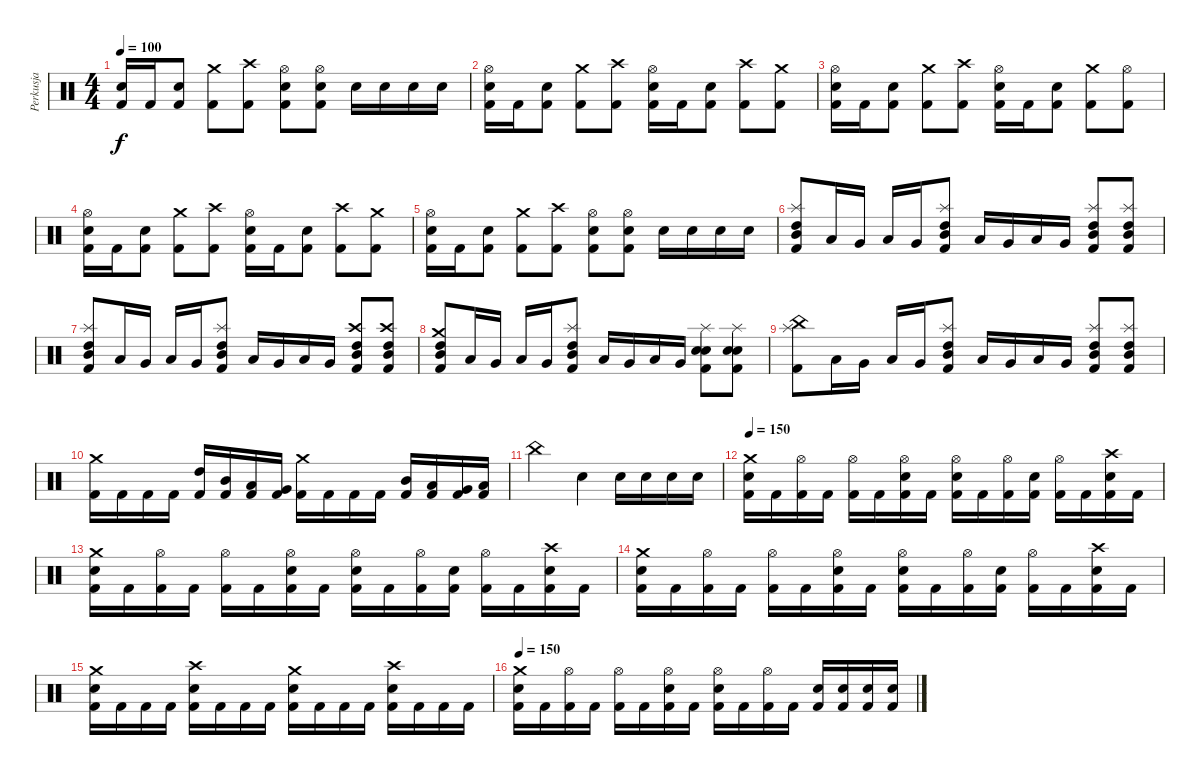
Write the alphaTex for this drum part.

\track ("Perkusja" "Perkusja") {instrument percussion}
\staff {score}
\articulation defaults
\ts (4 4)
\tempo 100
\clef neutral
\ks c
("Electric Snare (hit)" "Kick (hit) 2").16{dy f} "Kick (hit) 2".16 ("Electric Snare (hit)" "Kick (hit) 2").8 ("Crash medium (hit)" "Kick (hit) 2").8 ("Crash high (hit)" "Kick (hit) 2").8 ("Hi-Hat (open)" "Electric Snare (hit)" "Kick (hit) 2").8 ("Hi-Hat (open)" "Electric Snare (hit)" "Kick (hit) 2").8 "Electric Snare (hit)".16 "Electric Snare (hit)".16 "Electric Snare (hit)".16 "Electric Snare (hit)".16 |
("Hi-Hat (open)" "Electric Snare (hit)" "Kick (hit) 2").16 "Kick (hit) 2".16 ("Electric Snare (hit)" "Kick (hit) 2").8 ("Crash medium (hit)" "Kick (hit) 2").8 ("Crash high (hit)" "Kick (hit) 2").8 ("Hi-Hat (open)" "Electric Snare (hit)" "Kick (hit) 2").16 "Kick (hit) 2".16 ("Electric Snare (hit)" "Kick (hit) 2").8 ("Crash high (hit)" "Kick (hit) 2").8 ("Crash medium (hit)" "Kick (hit) 2").8 |
("Hi-Hat (open)" "Electric Snare (hit)" "Kick (hit) 2").16 "Kick (hit) 2".16 ("Electric Snare (hit)" "Kick (hit) 2").8 ("Crash medium (hit)" "Kick (hit) 2").8 ("Crash high (hit)" "Kick (hit) 2").8 ("Hi-Hat (open)" "Electric Snare (hit)" "Kick (hit) 2").16 "Kick (hit) 2".16 ("Electric Snare (hit)" "Kick (hit) 2").8 ("Crash medium (hit)" "Kick (hit) 2").8 ("Hi-Hat (open)" "Kick (hit) 2").8 |
("Hi-Hat (open)" "Electric Snare (hit)" "Kick (hit) 2").16 "Kick (hit) 2".16 ("Electric Snare (hit)" "Kick (hit) 2").8 ("Crash medium (hit)" "Kick (hit) 2").8 ("Crash high (hit)" "Kick (hit) 2").8 ("Hi-Hat (open)" "Electric Snare (hit)" "Kick (hit) 2").16 "Kick (hit) 2".16 ("Electric Snare (hit)" "Kick (hit) 2").8 ("Crash high (hit)" "Kick (hit) 2").8 ("Crash medium (hit)" "Kick (hit) 2").8 |
("Hi-Hat (open)" "Electric Snare (hit)" "Kick (hit) 2").16 "Kick (hit) 2".16 ("Electric Snare (hit)" "Kick (hit) 2").8 ("Crash medium (hit)" "Kick (hit) 2").8 ("Crash high (hit)" "Kick (hit) 2").8 ("Hi-Hat (open)" "Electric Snare (hit)" "Kick (hit) 2").8 ("Hi-Hat (open)" "Electric Snare (hit)" "Kick (hit) 2").8 "Electric Snare (hit)".16 "Electric Snare (hit)".16 "Electric Snare (hit)".16 "Electric Snare (hit)".16 |
("Kick (hit) 2" "Splash (hit)" "High Tom (hit)" "Mid Tom (hit)").8 "Low Tom (hit)".16 "Very Low Tom (hit)".16 "Low Tom (hit)".16 "Very Low Tom (hit)".16 ("Kick (hit) 2" "Splash (hit)" "High Tom (hit)" "Mid Tom (hit)").8 "Low Tom (hit)".16 "Very Low Tom (hit)".16 "Low Tom (hit)".16 "Very Low Tom (hit)".16 ("Kick (hit) 2" "Splash (hit)" "High Tom (hit)" "Mid Tom (hit)").8 ("Kick (hit) 2" "Splash (hit)" "High Tom (hit)" "Mid Tom (hit)").8 |
("Kick (hit) 2" "Splash (hit)" "High Tom (hit)" "Mid Tom (hit)").8 "Low Tom (hit)".16 "Very Low Tom (hit)".16 "Low Tom (hit)".16 "Very Low Tom (hit)".16 ("Kick (hit) 2" "Splash (hit)" "High Tom (hit)" "Mid Tom (hit)").8 "Low Tom (hit)".16 "Very Low Tom (hit)".16 "Low Tom (hit)".16 "Very Low Tom (hit)".16 ("Kick (hit) 2" "Crash high (hit)" "High Tom (hit)" "Mid Tom (hit)").8 ("Kick (hit) 2" "Crash high (hit)" "High Tom (hit)" "Mid Tom (hit)").8 |
("Kick (hit) 2" "Crash medium (hit)" "High Tom (hit)" "Mid Tom (hit)").8 "Low Tom (hit)".16 "Very Low Tom (hit)".16 "Low Tom (hit)".16 "Very Low Tom (hit)".16 ("Kick (hit) 2" "Splash (hit)" "High Tom (hit)" "Mid Tom (hit)").8 "Low Tom (hit)".16 "Very Low Tom (hit)".16 "Low Tom (hit)".16 "Very Low Tom (hit)".16 ("Kick (hit) 2" "Splash (hit)" "Electric Snare (hit)" "Snare (hit) 2").8 ("Kick (hit) 2" "Splash (hit)" "Electric Snare (hit)" "Snare (hit) 2").8 |
("China (hit)" "Splash (hit)" "Kick (hit) 2").8 "Low Tom (hit)".16 "Very Low Tom (hit)".16 "Low Tom (hit)".16 "Very Low Tom (hit)".16 ("Kick (hit) 2" "Splash (hit)" "High Tom (hit)" "Mid Tom (hit)").8 "Low Tom (hit)".16 "Very Low Tom (hit)".16 "Low Tom (hit)".16 "Very Low Tom (hit)".16 ("Kick (hit) 2" "Splash (hit)" "High Tom (hit)" "Mid Tom (hit)").8 ("Kick (hit) 2" "Splash (hit)" "High Tom (hit)" "Mid Tom (hit)").8 |
("Crash medium (hit)" "Kick (hit) 2").16 "Kick (hit) 2".16 "Kick (hit) 2".16 "Kick (hit) 2".16 ("High Tom (hit)" "Kick (hit) 2").16 ("Mid Tom (hit)" "Kick (hit) 2").16 ("Low Tom (hit)" "Kick (hit) 2").16 ("Very Low Tom (hit)" "Kick (hit) 2").16 ("Crash medium (hit)" "Kick (hit) 2").16 "Kick (hit) 2".16 "Kick (hit) 2".16 "Kick (hit) 2".16 ("Mid Tom (hit)" "Kick (hit) 2").16 ("Low Tom (hit)" "Kick (hit) 2").16 ("Very Low Tom (hit)" "Kick (hit) 2").16 ("Low Floor Tom (hit)" "Kick (hit) 2").16 |
"China (hit)".2 "Electric Snare (hit)".4 "Electric Snare (hit)".16 "Electric Snare (hit)".16 "Electric Snare (hit)".16 "Electric Snare (hit)".16 |
\tempo 150
("Crash medium (hit)" "Electric Snare (hit)" "Kick (hit) 2").16 "Kick (hit) 2".16 ("Hi-Hat (open)" "Kick (hit) 2").16 "Kick (hit) 2".16 ("Hi-Hat (open)" "Kick (hit) 2").16 "Kick (hit) 2".16 ("Hi-Hat (open)" "Electric Snare (hit)" "Kick (hit) 2").16 "Kick (hit) 2".16 ("Hi-Hat (open)" "Electric Snare (hit)" "Kick (hit) 2").16 "Kick (hit) 2".16 ("Hi-Hat (open)" "Kick (hit) 2").16 ("Electric Snare (hit)" "Kick (hit) 2").16 ("Hi-Hat (open)" "Kick (hit) 2").16 "Kick (hit) 2".16 ("Crash high (hit)" "Electric Snare (hit)" "Kick (hit) 2").16 "Kick (hit) 2".16 |
("Crash medium (hit)" "Electric Snare (hit)" "Kick (hit) 2").16 "Kick (hit) 2".16 ("Hi-Hat (open)" "Kick (hit) 2").16 "Kick (hit) 2".16 ("Hi-Hat (open)" "Kick (hit) 2").16 "Kick (hit) 2".16 ("Hi-Hat (open)" "Electric Snare (hit)" "Kick (hit) 2").16 "Kick (hit) 2".16 ("Hi-Hat (open)" "Electric Snare (hit)" "Kick (hit) 2").16 "Kick (hit) 2".16 ("Hi-Hat (open)" "Kick (hit) 2").16 ("Electric Snare (hit)" "Kick (hit) 2").16 ("Hi-Hat (open)" "Kick (hit) 2").16 "Kick (hit) 2".16 ("Crash high (hit)" "Electric Snare (hit)" "Kick (hit) 2").16 "Kick (hit) 2".16 |
("Crash medium (hit)" "Electric Snare (hit)" "Kick (hit) 2").16 "Kick (hit) 2".16 ("Hi-Hat (open)" "Kick (hit) 2").16 "Kick (hit) 2".16 ("Hi-Hat (open)" "Kick (hit) 2").16 "Kick (hit) 2".16 ("Hi-Hat (open)" "Electric Snare (hit)" "Kick (hit) 2").16 "Kick (hit) 2".16 ("Hi-Hat (open)" "Electric Snare (hit)" "Kick (hit) 2").16 "Kick (hit) 2".16 ("Hi-Hat (open)" "Kick (hit) 2").16 ("Electric Snare (hit)" "Kick (hit) 2").16 ("Hi-Hat (open)" "Kick (hit) 2").16 "Kick (hit) 2".16 ("Crash high (hit)" "Electric Snare (hit)" "Kick (hit) 2").16 "Kick (hit) 2".16 |
("Crash medium (hit)" "Electric Snare (hit)" "Kick (hit) 2").16 "Kick (hit) 2".16 "Kick (hit) 2".16 "Kick (hit) 2".16 ("Crash high (hit)" "Electric Snare (hit)" "Kick (hit) 2").16 "Kick (hit) 2".16 "Kick (hit) 2".16 "Kick (hit) 2".16 ("Crash medium (hit)" "Electric Snare (hit)" "Kick (hit) 2").16 "Kick (hit) 2".16 "Kick (hit) 2".16 "Kick (hit) 2".16 ("Crash high (hit)" "Electric Snare (hit)" "Kick (hit) 2").16 "Kick (hit) 2".16 "Kick (hit) 2".16 "Kick (hit) 2".16 |
\tempo 150
("Crash medium (hit)" "Electric Snare (hit)" "Kick (hit) 2").16 "Kick (hit) 2".16 ("Hi-Hat (open)" "Kick (hit) 2").16 "Kick (hit) 2".16 ("Hi-Hat (open)" "Kick (hit) 2").16 "Kick (hit) 2".16 ("Hi-Hat (open)" "Electric Snare (hit)" "Kick (hit) 2").16 "Kick (hit) 2".16 ("Hi-Hat (open)" "Electric Snare (hit)" "Kick (hit) 2").16 "Kick (hit) 2".16 ("Hi-Hat (open)" "Kick (hit) 2").16 "Kick (hit) 2".16 ("Electric Snare (hit)" "Kick (hit) 2").16 ("Electric Snare (hit)" "Kick (hit) 2").16 ("Electric Snare (hit)" "Kick (hit) 2").16 ("Electric Snare (hit)" "Kick (hit) 2").16
